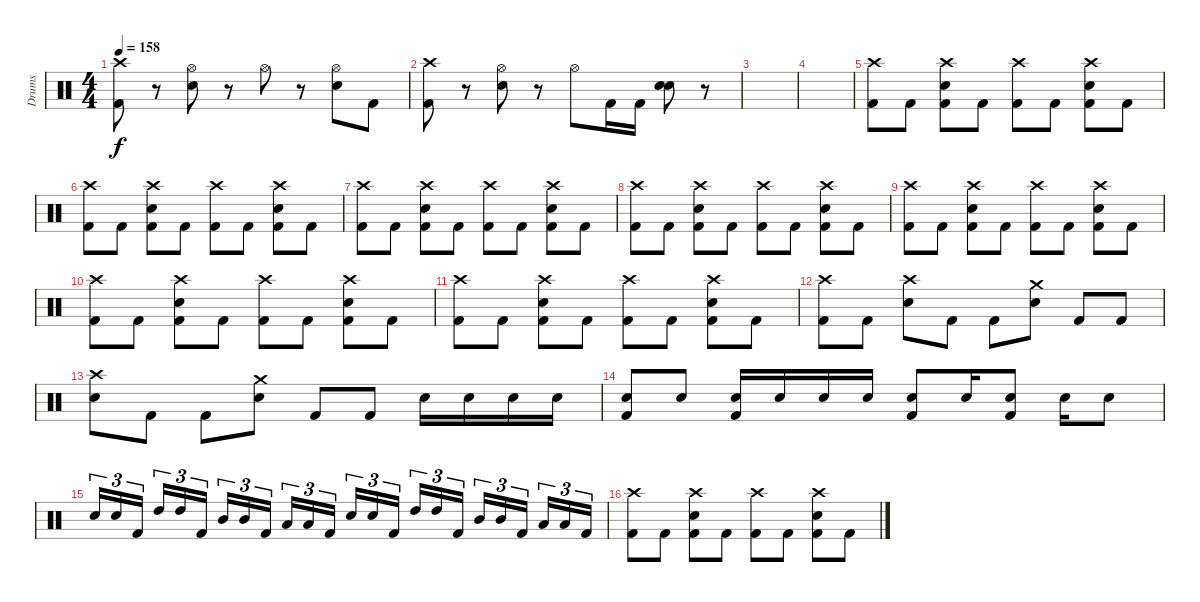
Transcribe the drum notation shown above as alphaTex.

\track ("Drums" "Drums") {instrument percussion}
\staff {score}
\articulation defaults
\ts (4 4)
\tempo 158
\clef neutral
\ks c
("Crash high (hit)" "Kick (hit) 2").8{dy f} r.8 ("Hi-Hat (open)" "Snare (hit) 2").8 r.8 "Hi-Hat (open)".8 r.8 ("Hi-Hat (open)" "Snare (hit) 2").8 "Kick (hit) 2".8 |
("Crash high (hit)" "Kick (hit) 2").8 r.8 ("Hi-Hat (open)" "Snare (hit) 2").8 r.8 "Hi-Hat (open)".8 "Kick (hit) 2".16 "Kick (hit) 2".16 ("Electric Snare (hit)" "Snare (hit) 2").8 r.8 |
|
|
("Crash high (hit)" "Kick (hit) 2").8 "Kick (hit) 2".8 ("Crash high (hit)" "Snare (hit) 2" "Kick (hit) 2").8 "Kick (hit) 2".8 ("Crash high (hit)" "Kick (hit) 2").8 "Kick (hit) 2".8 ("Crash high (hit)" "Snare (hit) 2" "Kick (hit) 2").8 "Kick (hit) 2".8 |
("Crash high (hit)" "Kick (hit) 2").8 "Kick (hit) 2".8 ("Crash high (hit)" "Snare (hit) 2" "Kick (hit) 2").8 "Kick (hit) 2".8 ("Crash high (hit)" "Kick (hit) 2").8 "Kick (hit) 2".8 ("Crash high (hit)" "Snare (hit) 2" "Kick (hit) 2").8 "Kick (hit) 2".8 |
("Crash high (hit)" "Kick (hit) 2").8 "Kick (hit) 2".8 ("Crash high (hit)" "Snare (hit) 2" "Kick (hit) 2").8 "Kick (hit) 2".8 ("Crash high (hit)" "Kick (hit) 2").8 "Kick (hit) 2".8 ("Crash high (hit)" "Snare (hit) 2" "Kick (hit) 2").8 "Kick (hit) 2".8 |
("Crash high (hit)" "Kick (hit) 2").8 "Kick (hit) 2".8 ("Crash high (hit)" "Snare (hit) 2" "Kick (hit) 2").8 "Kick (hit) 2".8 ("Crash high (hit)" "Kick (hit) 2").8 "Kick (hit) 2".8 ("Crash high (hit)" "Snare (hit) 2" "Kick (hit) 2").8 "Kick (hit) 2".8 |
("Crash high (hit)" "Kick (hit) 2").8 "Kick (hit) 2".8 ("Crash high (hit)" "Snare (hit) 2" "Kick (hit) 2").8 "Kick (hit) 2".8 ("Crash high (hit)" "Kick (hit) 2").8 "Kick (hit) 2".8 ("Crash high (hit)" "Snare (hit) 2" "Kick (hit) 2").8 "Kick (hit) 2".8 |
("Crash high (hit)" "Kick (hit) 2").8 "Kick (hit) 2".8 ("Crash high (hit)" "Snare (hit) 2" "Kick (hit) 2").8 "Kick (hit) 2".8 ("Crash high (hit)" "Kick (hit) 2").8 "Kick (hit) 2".8 ("Crash high (hit)" "Snare (hit) 2" "Kick (hit) 2").8 "Kick (hit) 2".8 |
("Crash high (hit)" "Kick (hit) 2").8 "Kick (hit) 2".8 ("Crash high (hit)" "Snare (hit) 2" "Kick (hit) 2").8 "Kick (hit) 2".8 ("Crash high (hit)" "Kick (hit) 2").8 "Kick (hit) 2".8 ("Crash high (hit)" "Snare (hit) 2" "Kick (hit) 2").8 "Kick (hit) 2".8 |
("Crash high (hit)" "Kick (hit) 2").8 "Kick (hit) 2".8 ("Crash high (hit)" "Snare (hit) 2").8 "Kick (hit) 2".8 "Kick (hit) 2".8 ("Crash medium (hit)" "Snare (hit) 2").8 "Kick (hit) 2".8 "Kick (hit) 2".8 |
("Crash high (hit)" "Snare (hit) 2").8 "Kick (hit) 2".8 "Kick (hit) 2".8 ("Crash medium (hit)" "Snare (hit) 2").8 "Kick (hit) 2".8 "Kick (hit) 2".8 "Snare (hit) 2".16 "Snare (hit) 2".16 "Snare (hit) 2".16 "Snare (hit) 2".16 |
("Snare (hit) 2" "Kick (hit) 2").8 "Snare (hit) 2".8 ("Snare (hit) 2" "Kick (hit) 2").16 "Snare (hit) 2".16 "Snare (hit) 2".16 "Snare (hit) 2".16 ("Snare (hit) 2" "Kick (hit) 2").8 "Snare (hit) 2".16 ("Snare (hit) 2" "Kick (hit) 2").8 "Snare (hit) 2".16 "Snare (hit) 2".8 |
"Snare (hit) 2".16{tu (3 2)} "Snare (hit) 2".16{tu (3 2)} "Kick (hit) 2".16{tu (3 2) beam splitsecondary} "High Tom (hit)".16{tu (3 2)} "High Tom (hit)".16{tu (3 2)} "Kick (hit) 2".16{tu (3 2)} "Mid Tom (hit)".16{tu (3 2)} "Mid Tom (hit)".16{tu (3 2)} "Kick (hit) 2".16{tu (3 2) beam splitsecondary} "Low Tom (hit)".16{tu (3 2)} "Low Tom (hit)".16{tu (3 2)} "Kick (hit) 2".16{tu (3 2)} "Snare (hit) 2".16{tu (3 2)} "Snare (hit) 2".16{tu (3 2)} "Kick (hit) 2".16{tu (3 2) beam splitsecondary} "High Tom (hit)".16{tu (3 2)} "High Tom (hit)".16{tu (3 2)} "Kick (hit) 2".16{tu (3 2)} "Mid Tom (hit)".16{tu (3 2)} "Mid Tom (hit)".16{tu (3 2)} "Kick (hit) 2".16{tu (3 2) beam splitsecondary} "Low Tom (hit)".16{tu (3 2)} "Low Tom (hit)".16{tu (3 2)} "Kick (hit) 2".16{tu (3 2)} |
("Crash high (hit)" "Kick (hit) 2").8 "Kick (hit) 2".8 ("Crash high (hit)" "Snare (hit) 2" "Kick (hit) 2").8 "Kick (hit) 2".8 ("Crash high (hit)" "Kick (hit) 2").8 "Kick (hit) 2".8 ("Crash high (hit)" "Snare (hit) 2" "Kick (hit) 2").8 "Kick (hit) 2".8
